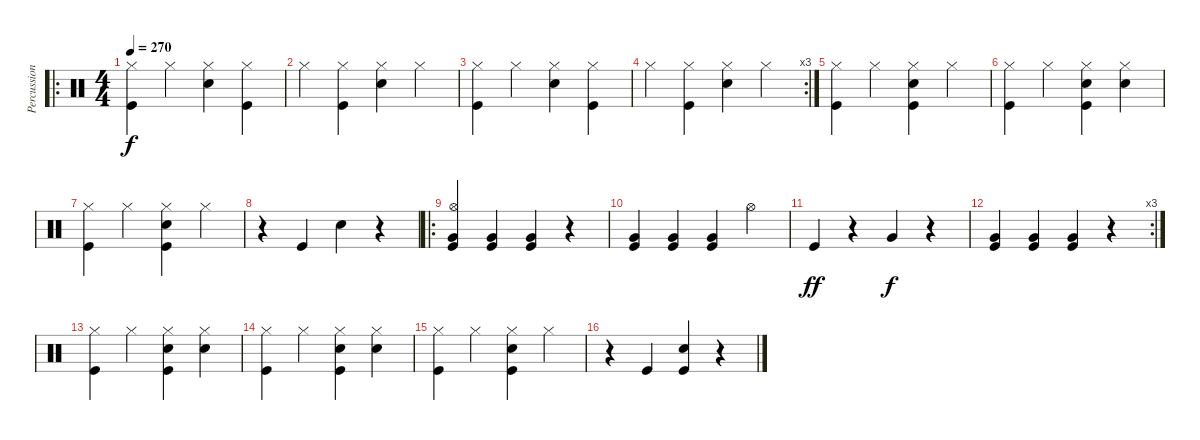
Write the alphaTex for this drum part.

\track ("Percussions" "Percussion") {instrument percussion}
\staff {score}
\articulation defaults
\ro
\ts (4 4)
\tempo 270
\clef neutral
\ks c
("Hi-Hat (closed)" "Kick (hit)").4{dy f} "Hi-Hat (closed)".4 ("Hi-Hat (closed)" "Snare (hit) 2").4 ("Hi-Hat (closed)" "Kick (hit)").4 |
"Hi-Hat (closed)".4 ("Hi-Hat (closed)" "Kick (hit)").4 ("Hi-Hat (closed)" "Snare (hit) 2").4 "Hi-Hat (closed)".4 |
("Hi-Hat (closed)" "Kick (hit)").4 "Hi-Hat (closed)".4 ("Hi-Hat (closed)" "Snare (hit) 2").4 ("Hi-Hat (closed)" "Kick (hit)").4 |
\rc 3 "Hi-Hat (closed)".4
("Hi-Hat (closed)" "Kick (hit)").4 ("Hi-Hat (closed)" "Snare (hit) 2").4 "Hi-Hat (closed)".4 |
("Hi-Hat (closed)" "Kick (hit)").4 "Hi-Hat (closed)".4 ("Hi-Hat (closed)" "Snare (hit) 2" "Kick (hit)").4 "Hi-Hat (closed)".4 |
("Hi-Hat (closed)" "Kick (hit)").4 "Hi-Hat (closed)".4 ("Hi-Hat (closed)" "Snare (hit) 2" "Kick (hit)").4 ("Hi-Hat (closed)" "Snare (hit) 2").4 |
("Hi-Hat (closed)" "Kick (hit)").4 "Hi-Hat (closed)".4 ("Hi-Hat (closed)" "Snare (hit) 2" "Kick (hit)").4 "Hi-Hat (closed)".4 |
r.4 "Kick (hit)".4 "Snare (hit) 2".4 r.4 |
\ro
("Hi-Hat (open)" "Kick (hit)" "Very Low Tom (hit)").4 ("Kick (hit)" "Very Low Tom (hit)").4 ("Kick (hit)" "Very Low Tom (hit)").4 r.4 |
("Kick (hit)" "Very Low Tom (hit)").4 ("Kick (hit)" "Very Low Tom (hit)").4 ("Kick (hit)" "Very Low Tom (hit)").4 "Hi-Hat (open)".4 |
"Kick (hit)".4{dy ff} r.4 "Very Low Tom (hit)".4{dy f} r.4 |
\rc 3
("Very Low Tom (hit)" "Kick (hit)").4 ("Very Low Tom (hit)" "Kick (hit)").4 ("Very Low Tom (hit)" "Kick (hit)").4 r.4 |
("Hi-Hat (closed)" "Kick (hit)").4 "Hi-Hat (closed)".4 ("Hi-Hat (closed)" "Snare (hit) 2" "Kick (hit)").4 ("Hi-Hat (closed)" "Snare (hit) 2").4 |
("Hi-Hat (closed)" "Kick (hit)").4 "Hi-Hat (closed)".4 ("Hi-Hat (closed)" "Snare (hit) 2" "Kick (hit)").4 ("Hi-Hat (closed)" "Snare (hit) 2").4 |
("Hi-Hat (closed)" "Kick (hit)").4 "Hi-Hat (closed)".4 ("Hi-Hat (closed)" "Snare (hit) 2" "Kick (hit)").4 "Hi-Hat (closed)".4 |
r.4 "Kick (hit)".4 ("Kick (hit)" "Snare (hit) 2").4 r.4
